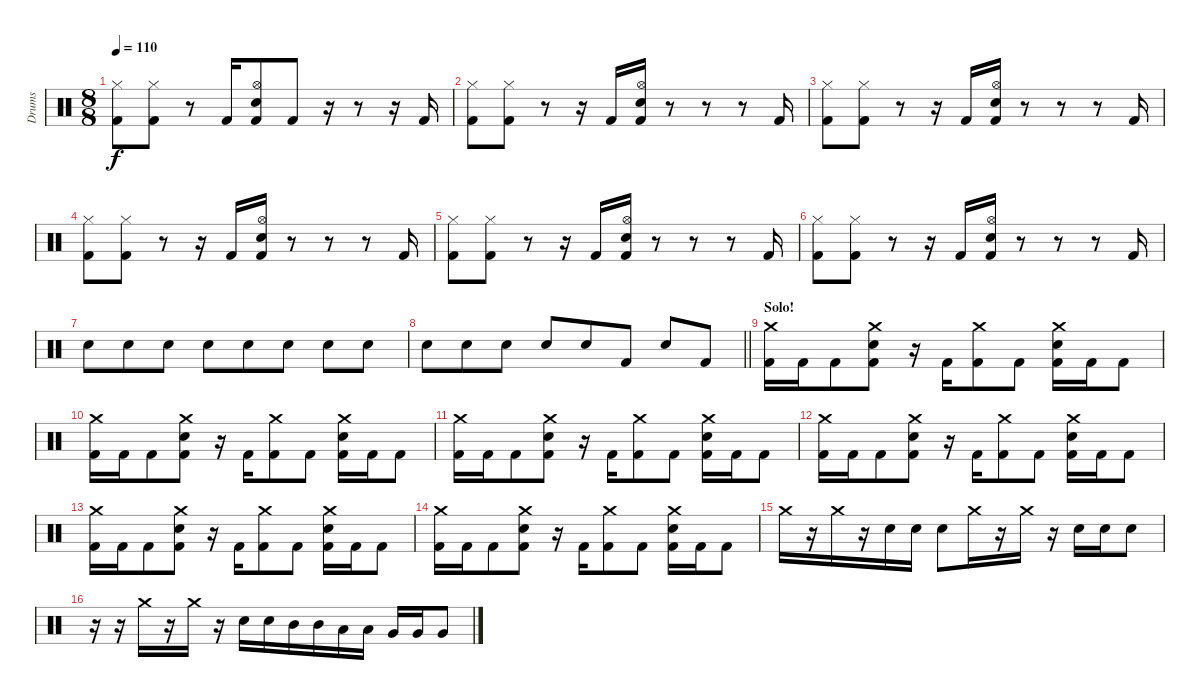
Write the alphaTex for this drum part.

\track ("Drums" "Drums") {instrument percussion}
\staff {score}
\articulation defaults
\ts (8 8)
\tempo 110
\clef neutral
\ks c
("Hi-Hat (closed)" "Kick (hit) 2").8{dy f} ("Hi-Hat (closed)" "Kick (hit) 2").8 r.8 "Kick (hit) 2".16 ("Hi-Hat (open)" "Electric Snare (hit)" "Kick (hit) 2").8 "Kick (hit) 2".8 r.16 r.8 r.16 "Kick (hit) 2".16 |
("Hi-Hat (closed)" "Kick (hit) 2").8 ("Hi-Hat (closed)" "Kick (hit) 2").8 r.8 r.16 "Kick (hit) 2".16 ("Hi-Hat (open)" "Electric Snare (hit)" "Kick (hit) 2").16 r.8 r.8 r.8 "Kick (hit) 2".16 |
("Hi-Hat (closed)" "Kick (hit) 2").8 ("Hi-Hat (closed)" "Kick (hit) 2").8 r.8 r.16 "Kick (hit) 2".16 ("Hi-Hat (open)" "Electric Snare (hit)" "Kick (hit) 2").16 r.8 r.8 r.8 "Kick (hit) 2".16 |
("Hi-Hat (closed)" "Kick (hit) 2").8 ("Hi-Hat (closed)" "Kick (hit) 2").8 r.8 r.16 "Kick (hit) 2".16 ("Hi-Hat (open)" "Electric Snare (hit)" "Kick (hit) 2").16 r.8 r.8 r.8 "Kick (hit) 2".16 |
("Hi-Hat (closed)" "Kick (hit) 2").8 ("Hi-Hat (closed)" "Kick (hit) 2").8 r.8 r.16 "Kick (hit) 2".16 ("Hi-Hat (open)" "Electric Snare (hit)" "Kick (hit) 2").16 r.8 r.8 r.8 "Kick (hit) 2".16 |
("Hi-Hat (closed)" "Kick (hit) 2").8 ("Hi-Hat (closed)" "Kick (hit) 2").8 r.8 r.16 "Kick (hit) 2".16 ("Hi-Hat (open)" "Electric Snare (hit)" "Kick (hit) 2").16 r.8 r.8 r.8 "Kick (hit) 2".16 |
"Electric Snare (hit)".8 "Electric Snare (hit)".8 "Electric Snare (hit)".8 "Electric Snare (hit)".8 "Electric Snare (hit)".8 "Electric Snare (hit)".8 "Electric Snare (hit)".8 "Electric Snare (hit)".8 |
\barLineRight lightlight "Electric Snare (hit)".8 "Electric Snare (hit)".8 "Electric Snare (hit)".8 "Electric Snare (hit)".8 "Electric Snare (hit)".8 "Kick (hit) 2".8 "Electric Snare (hit)".8 "Kick (hit) 2".8
|
\section ("" "Solo!")
("Crash medium (hit)" "Kick (hit) 2").16 "Kick (hit) 2".16 "Kick (hit) 2".8 ("Crash medium (hit)" "Electric Snare (hit)" "Kick (hit) 2").8 r.16 "Kick (hit) 2".16 ("Crash medium (hit)" "Kick (hit) 2").8 "Kick (hit) 2".8 ("Crash medium (hit)" "Electric Snare (hit)" "Kick (hit) 2").16 "Kick (hit) 2".16 "Kick (hit) 2".8 |
("Crash medium (hit)" "Kick (hit) 2").16 "Kick (hit) 2".16 "Kick (hit) 2".8 ("Crash medium (hit)" "Electric Snare (hit)" "Kick (hit) 2").8 r.16 "Kick (hit) 2".16 ("Crash medium (hit)" "Kick (hit) 2").8 "Kick (hit) 2".8 ("Crash medium (hit)" "Electric Snare (hit)" "Kick (hit) 2").16 "Kick (hit) 2".16 "Kick (hit) 2".8 |
("Crash medium (hit)" "Kick (hit) 2").16 "Kick (hit) 2".16 "Kick (hit) 2".8 ("Crash medium (hit)" "Electric Snare (hit)" "Kick (hit) 2").8 r.16 "Kick (hit) 2".16 ("Crash medium (hit)" "Kick (hit) 2").8 "Kick (hit) 2".8 ("Crash medium (hit)" "Electric Snare (hit)" "Kick (hit) 2").16 "Kick (hit) 2".16 "Kick (hit) 2".8 |
("Crash medium (hit)" "Kick (hit) 2").16 "Kick (hit) 2".16 "Kick (hit) 2".8 ("Crash medium (hit)" "Electric Snare (hit)" "Kick (hit) 2").8 r.16 "Kick (hit) 2".16 ("Crash medium (hit)" "Kick (hit) 2").8 "Kick (hit) 2".8 ("Crash medium (hit)" "Electric Snare (hit)" "Kick (hit) 2").16 "Kick (hit) 2".16 "Kick (hit) 2".8 |
("Crash medium (hit)" "Kick (hit) 2").16 "Kick (hit) 2".16 "Kick (hit) 2".8 ("Crash medium (hit)" "Electric Snare (hit)" "Kick (hit) 2").8 r.16 "Kick (hit) 2".16 ("Crash medium (hit)" "Kick (hit) 2").8 "Kick (hit) 2".8 ("Crash medium (hit)" "Electric Snare (hit)" "Kick (hit) 2").16 "Kick (hit) 2".16 "Kick (hit) 2".8 |
("Crash medium (hit)" "Kick (hit) 2").16 "Kick (hit) 2".16 "Kick (hit) 2".8 ("Crash medium (hit)" "Electric Snare (hit)" "Kick (hit) 2").8 r.16 "Kick (hit) 2".16 ("Crash medium (hit)" "Kick (hit) 2").8 "Kick (hit) 2".8 ("Crash medium (hit)" "Electric Snare (hit)" "Kick (hit) 2").16 "Kick (hit) 2".16 "Kick (hit) 2".8 |
"Crash medium (hit)".16 r.16 "Crash medium (hit)".16 r.16 "Electric Snare (hit)".16 "Electric Snare (hit)".16 "Electric Snare (hit)".8 "Crash medium (hit)".16 r.16 "Crash medium (hit)".16 r.16 "Electric Snare (hit)".16 "Electric Snare (hit)".16 "Electric Snare (hit)".8 |
r.16 r.16 "Crash medium (hit)".16 r.16 "Crash medium (hit)".16 r.16 "Electric Snare (hit)".16 "Electric Snare (hit)".16 "Mid Tom (hit)".16 "Mid Tom (hit)".16 "Low Tom (hit)".16 "Low Tom (hit)".16 "Very Low Tom (hit)".16 "Very Low Tom (hit)".16 "Very Low Tom (hit)".8
